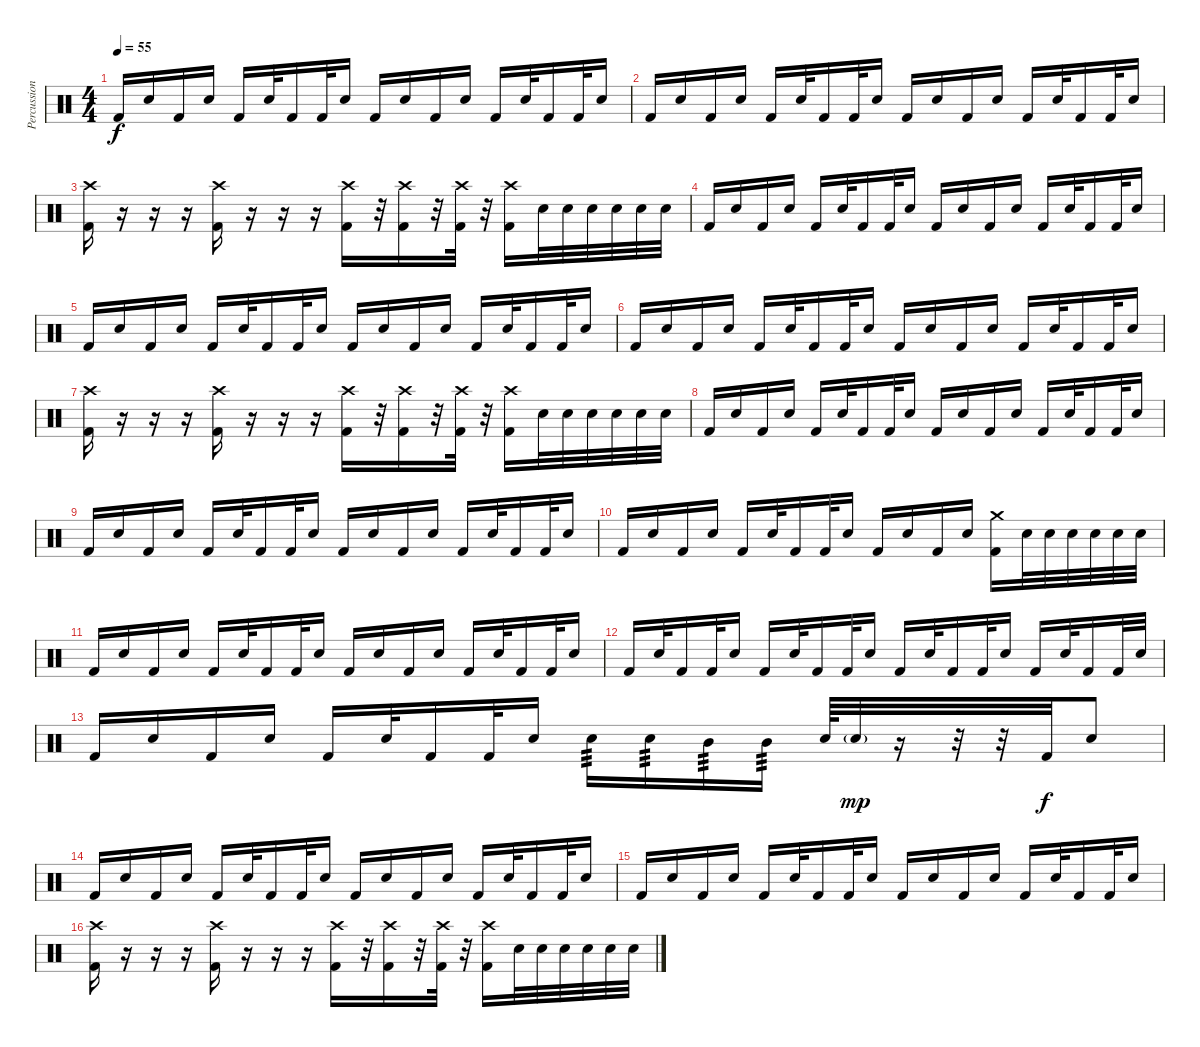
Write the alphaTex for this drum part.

\track ("Percussion" "Percussion") {instrument percussion}
\staff {score}
\articulation defaults
\ts (4 4)
\tempo 55
\clef neutral
\ks c "Kick (hit) 2".16{dy f} "Snare (hit) 2".16 "Kick (hit) 2".16 "Snare (hit) 2".16 "Kick (hit) 2".16 "Snare (hit) 2".32 "Kick (hit) 2".16 "Kick (hit) 2".32 "Snare (hit) 2".16 "Kick (hit) 2".16 "Snare (hit) 2".16 "Kick (hit) 2".16 "Snare (hit) 2".16 "Kick (hit) 2".16 "Snare (hit) 2".32 "Kick (hit) 2".16 "Kick (hit) 2".32 "Snare (hit) 2".16
|
"Kick (hit) 2".16 "Snare (hit) 2".16 "Kick (hit) 2".16 "Snare (hit) 2".16 "Kick (hit) 2".16 "Snare (hit) 2".32 "Kick (hit) 2".16 "Kick (hit) 2".32 "Snare (hit) 2".16 "Kick (hit) 2".16 "Snare (hit) 2".16 "Kick (hit) 2".16 "Snare (hit) 2".16 "Kick (hit) 2".16 "Snare (hit) 2".32 "Kick (hit) 2".16 "Kick (hit) 2".32 "Snare (hit) 2".16 |
("Kick (hit) 2" "Crash high (hit)").16 r.16 r.16 r.16 ("Kick (hit) 2" "Crash high (hit)").16 r.16 r.16 r.16 ("Kick (hit) 2" "Crash high (hit)").16 r.32 ("Kick (hit) 2" "Crash high (hit)").16 r.32 ("Kick (hit) 2" "Crash high (hit)").32 r.32 ("Kick (hit) 2" "Crash high (hit)").16 "Snare (hit) 2".32 "Snare (hit) 2".32 "Snare (hit) 2".32 "Snare (hit) 2".32 "Snare (hit) 2".32 "Snare (hit) 2".32 |
"Kick (hit) 2".16 "Snare (hit) 2".16 "Kick (hit) 2".16 "Snare (hit) 2".16 "Kick (hit) 2".16 "Snare (hit) 2".32 "Kick (hit) 2".16 "Kick (hit) 2".32 "Snare (hit) 2".16 "Kick (hit) 2".16 "Snare (hit) 2".16 "Kick (hit) 2".16 "Snare (hit) 2".16 "Kick (hit) 2".16 "Snare (hit) 2".32 "Kick (hit) 2".16 "Kick (hit) 2".32 "Snare (hit) 2".16 |
"Kick (hit) 2".16 "Snare (hit) 2".16 "Kick (hit) 2".16 "Snare (hit) 2".16 "Kick (hit) 2".16 "Snare (hit) 2".32 "Kick (hit) 2".16 "Kick (hit) 2".32 "Snare (hit) 2".16 "Kick (hit) 2".16 "Snare (hit) 2".16 "Kick (hit) 2".16 "Snare (hit) 2".16 "Kick (hit) 2".16 "Snare (hit) 2".32 "Kick (hit) 2".16 "Kick (hit) 2".32 "Snare (hit) 2".16 |
"Kick (hit) 2".16 "Snare (hit) 2".16 "Kick (hit) 2".16 "Snare (hit) 2".16 "Kick (hit) 2".16 "Snare (hit) 2".32 "Kick (hit) 2".16 "Kick (hit) 2".32 "Snare (hit) 2".16 "Kick (hit) 2".16 "Snare (hit) 2".16 "Kick (hit) 2".16 "Snare (hit) 2".16 "Kick (hit) 2".16 "Snare (hit) 2".32 "Kick (hit) 2".16 "Kick (hit) 2".32 "Snare (hit) 2".16 |
("Kick (hit) 2" "Crash high (hit)").16 r.16 r.16 r.16 ("Kick (hit) 2" "Crash high (hit)").16 r.16 r.16 r.16 ("Kick (hit) 2" "Crash high (hit)").16 r.32 ("Kick (hit) 2" "Crash high (hit)").16 r.32 ("Kick (hit) 2" "Crash high (hit)").32 r.32 ("Kick (hit) 2" "Crash high (hit)").16 "Snare (hit) 2".32 "Snare (hit) 2".32 "Snare (hit) 2".32 "Snare (hit) 2".32 "Snare (hit) 2".32 "Snare (hit) 2".32 |
"Kick (hit) 2".16 "Snare (hit) 2".16 "Kick (hit) 2".16 "Snare (hit) 2".16 "Kick (hit) 2".16 "Snare (hit) 2".32 "Kick (hit) 2".16 "Kick (hit) 2".32 "Snare (hit) 2".16 "Kick (hit) 2".16 "Snare (hit) 2".16 "Kick (hit) 2".16 "Snare (hit) 2".16 "Kick (hit) 2".16 "Snare (hit) 2".32 "Kick (hit) 2".16 "Kick (hit) 2".32 "Snare (hit) 2".16 |
"Kick (hit) 2".16 "Snare (hit) 2".16 "Kick (hit) 2".16 "Snare (hit) 2".16 "Kick (hit) 2".16 "Snare (hit) 2".32 "Kick (hit) 2".16 "Kick (hit) 2".32 "Snare (hit) 2".16 "Kick (hit) 2".16 "Snare (hit) 2".16 "Kick (hit) 2".16 "Snare (hit) 2".16 "Kick (hit) 2".16 "Snare (hit) 2".32 "Kick (hit) 2".16 "Kick (hit) 2".32 "Snare (hit) 2".16 |
"Kick (hit) 2".16 "Snare (hit) 2".16 "Kick (hit) 2".16 "Snare (hit) 2".16 "Kick (hit) 2".16 "Snare (hit) 2".32 "Kick (hit) 2".16 "Kick (hit) 2".32 "Snare (hit) 2".16 "Kick (hit) 2".16 "Snare (hit) 2".16 "Kick (hit) 2".16 "Snare (hit) 2".16 ("Kick (hit) 2" "Crash medium (hit)").16 "Snare (hit) 2".32 "Snare (hit) 2".32 "Snare (hit) 2".32 "Snare (hit) 2".32 "Snare (hit) 2".32 "Snare (hit) 2".32 |
"Kick (hit) 2".16 "Snare (hit) 2".16 "Kick (hit) 2".16 "Snare (hit) 2".16 "Kick (hit) 2".16 "Snare (hit) 2".32 "Kick (hit) 2".16 "Kick (hit) 2".32 "Snare (hit) 2".16 "Kick (hit) 2".16 "Snare (hit) 2".16 "Kick (hit) 2".16 "Snare (hit) 2".16 "Kick (hit) 2".16 "Snare (hit) 2".32 "Kick (hit) 2".16 "Kick (hit) 2".32 "Snare (hit) 2".16 |
"Kick (hit) 2".16 "Snare (hit) 2".32 "Kick (hit) 2".16 "Kick (hit) 2".32 "Snare (hit) 2".16 "Kick (hit) 2".16 "Snare (hit) 2".32 "Kick (hit) 2".16 "Kick (hit) 2".32 "Snare (hit) 2".16 "Kick (hit) 2".16 "Snare (hit) 2".32 "Kick (hit) 2".16 "Kick (hit) 2".32 "Snare (hit) 2".16 "Kick (hit) 2".16 "Snare (hit) 2".32 "Kick (hit) 2".16 "Kick (hit) 2".32 "Snare (hit) 2".32 |
"Kick (hit) 2".16 "Snare (hit) 2".16 "Kick (hit) 2".16 "Snare (hit) 2".16 "Kick (hit) 2".16 "Snare (hit) 2".32 "Kick (hit) 2".16 "Kick (hit) 2".32 "Snare (hit) 2".16 "Snare (hit) 2".16{tp 3} "Snare (hit) 2".16{tp 3} "Mid Tom (hit)".16{tp 3} "Mid Tom (hit)".16{tp 3} "Snare (hit) 2".64 "Snare (hit) 2"{g}.32{dy mp} r.16 r.32 r.32 "Kick (hit) 2".32{dy f} "Snare (hit) 2".8 |
"Kick (hit) 2".16 "Snare (hit) 2".16 "Kick (hit) 2".16 "Snare (hit) 2".16 "Kick (hit) 2".16 "Snare (hit) 2".32 "Kick (hit) 2".16 "Kick (hit) 2".32 "Snare (hit) 2".16 "Kick (hit) 2".16 "Snare (hit) 2".16 "Kick (hit) 2".16 "Snare (hit) 2".16 "Kick (hit) 2".16 "Snare (hit) 2".32 "Kick (hit) 2".16 "Kick (hit) 2".32 "Snare (hit) 2".16 |
"Kick (hit) 2".16 "Snare (hit) 2".16 "Kick (hit) 2".16 "Snare (hit) 2".16 "Kick (hit) 2".16 "Snare (hit) 2".32 "Kick (hit) 2".16 "Kick (hit) 2".32 "Snare (hit) 2".16 "Kick (hit) 2".16 "Snare (hit) 2".16 "Kick (hit) 2".16 "Snare (hit) 2".16 "Kick (hit) 2".16 "Snare (hit) 2".32 "Kick (hit) 2".16 "Kick (hit) 2".32 "Snare (hit) 2".16 |
("Kick (hit) 2" "Crash high (hit)").16 r.16 r.16 r.16 ("Kick (hit) 2" "Crash high (hit)").16 r.16 r.16 r.16 ("Kick (hit) 2" "Crash high (hit)").16 r.32 ("Kick (hit) 2" "Crash high (hit)").16 r.32 ("Kick (hit) 2" "Crash high (hit)").32 r.32 ("Kick (hit) 2" "Crash high (hit)").16 "Snare (hit) 2".32 "Snare (hit) 2".32 "Snare (hit) 2".32 "Snare (hit) 2".32 "Snare (hit) 2".32 "Snare (hit) 2".32
